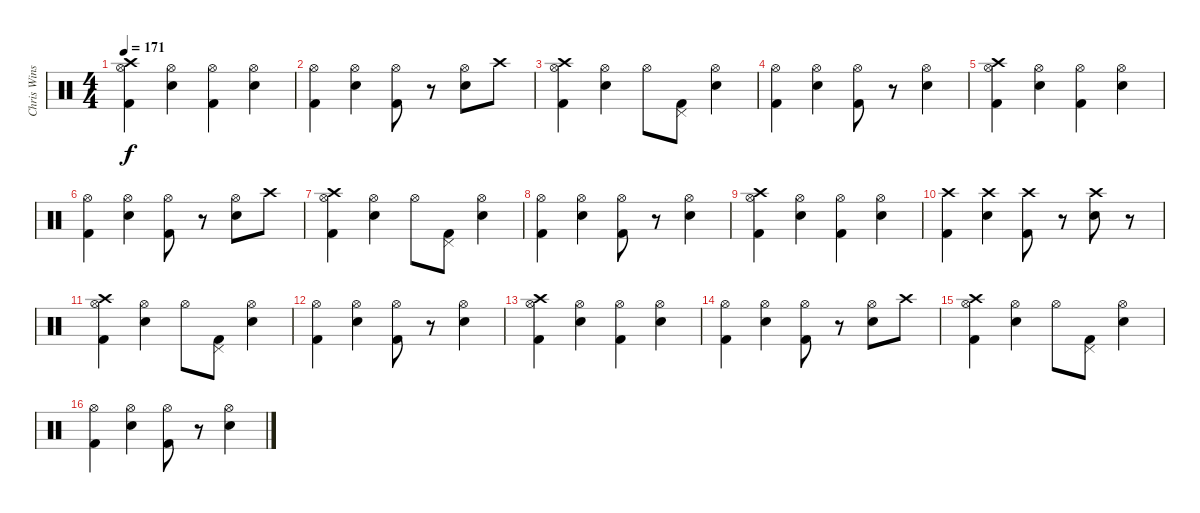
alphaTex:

\track ("Chris Winship (Drums)" "Chris Wins") {instrument percussion}
\staff {score}
\articulation defaults
\ts (4 4)
\tempo 171
\clef neutral
\ks c
("Crash high (hit)" "Hi-Hat (open)" "Kick (hit) 2").4{dy f} ("Hi-Hat (open)" "Snare (hit) 2").4 ("Hi-Hat (open)" "Kick (hit) 2").4 ("Hi-Hat (open)" "Snare (hit) 2").4 |
("Hi-Hat (open)" "Kick (hit) 2").4 ("Hi-Hat (open)" "Snare (hit) 2").4 ("Hi-Hat (open)" "Kick (hit) 2").8 r.8 ("Hi-Hat (open)" "Snare (hit) 2").8 "Crash high (hit)".8 |
("Crash high (hit)" "Hi-Hat (open)" "Kick (hit) 2").4 ("Hi-Hat (open)" "Snare (hit) 2").4 "Hi-Hat (open)".8 ("Pedal Hi-Hat (hit)" "Kick (hit) 2").8 ("Hi-Hat (open)" "Snare (hit) 2").4 |
("Hi-Hat (open)" "Kick (hit) 2").4 ("Hi-Hat (open)" "Snare (hit) 2").4 ("Hi-Hat (open)" "Kick (hit) 2").8 r.8 ("Hi-Hat (open)" "Snare (hit) 2").4 |
("Crash high (hit)" "Hi-Hat (open)" "Kick (hit) 2").4 ("Hi-Hat (open)" "Snare (hit) 2").4 ("Hi-Hat (open)" "Kick (hit) 2").4 ("Hi-Hat (open)" "Snare (hit) 2").4 |
("Hi-Hat (open)" "Kick (hit) 2").4 ("Hi-Hat (open)" "Snare (hit) 2").4 ("Hi-Hat (open)" "Kick (hit) 2").8 r.8 ("Hi-Hat (open)" "Snare (hit) 2").8 "Crash high (hit)".8 |
("Crash high (hit)" "Hi-Hat (open)" "Kick (hit) 2").4 ("Hi-Hat (open)" "Snare (hit) 2").4 "Hi-Hat (open)".8 ("Pedal Hi-Hat (hit)" "Kick (hit) 2").8 ("Hi-Hat (open)" "Snare (hit) 2").4 |
("Hi-Hat (open)" "Kick (hit) 2").4 ("Hi-Hat (open)" "Snare (hit) 2").4 ("Hi-Hat (open)" "Kick (hit) 2").8 r.8 ("Hi-Hat (open)" "Snare (hit) 2").4 |
("Crash high (hit)" "Hi-Hat (open)" "Kick (hit) 2").4 ("Hi-Hat (open)" "Snare (hit) 2").4 ("Hi-Hat (open)" "Kick (hit) 2").4 ("Hi-Hat (open)" "Snare (hit) 2").4 |
("Crash high (hit)" "Kick (hit) 2").4 ("Crash high (hit)" "Snare (hit) 2").4 ("Crash high (hit)" "Kick (hit) 2").8 r.8 ("Crash high (hit)" "Snare (hit) 2").8 r.8 |
("Crash high (hit)" "Hi-Hat (open)" "Kick (hit) 2").4 ("Hi-Hat (open)" "Snare (hit) 2").4 "Hi-Hat (open)".8 ("Pedal Hi-Hat (hit)" "Kick (hit) 2").8 ("Hi-Hat (open)" "Snare (hit) 2").4 |
("Hi-Hat (open)" "Kick (hit) 2").4 ("Hi-Hat (open)" "Snare (hit) 2").4 ("Hi-Hat (open)" "Kick (hit) 2").8 r.8 ("Hi-Hat (open)" "Snare (hit) 2").4 |
("Crash high (hit)" "Hi-Hat (open)" "Kick (hit) 2").4 ("Hi-Hat (open)" "Snare (hit) 2").4 ("Hi-Hat (open)" "Kick (hit) 2").4 ("Hi-Hat (open)" "Snare (hit) 2").4 |
("Hi-Hat (open)" "Kick (hit) 2").4 ("Hi-Hat (open)" "Snare (hit) 2").4 ("Hi-Hat (open)" "Kick (hit) 2").8 r.8 ("Hi-Hat (open)" "Snare (hit) 2").8 "Crash high (hit)".8 |
("Crash high (hit)" "Hi-Hat (open)" "Kick (hit) 2").4 ("Hi-Hat (open)" "Snare (hit) 2").4 "Hi-Hat (open)".8 ("Pedal Hi-Hat (hit)" "Kick (hit) 2").8 ("Hi-Hat (open)" "Snare (hit) 2").4 |
("Hi-Hat (open)" "Kick (hit) 2").4 ("Hi-Hat (open)" "Snare (hit) 2").4 ("Hi-Hat (open)" "Kick (hit) 2").8 r.8 ("Hi-Hat (open)" "Snare (hit) 2").4
